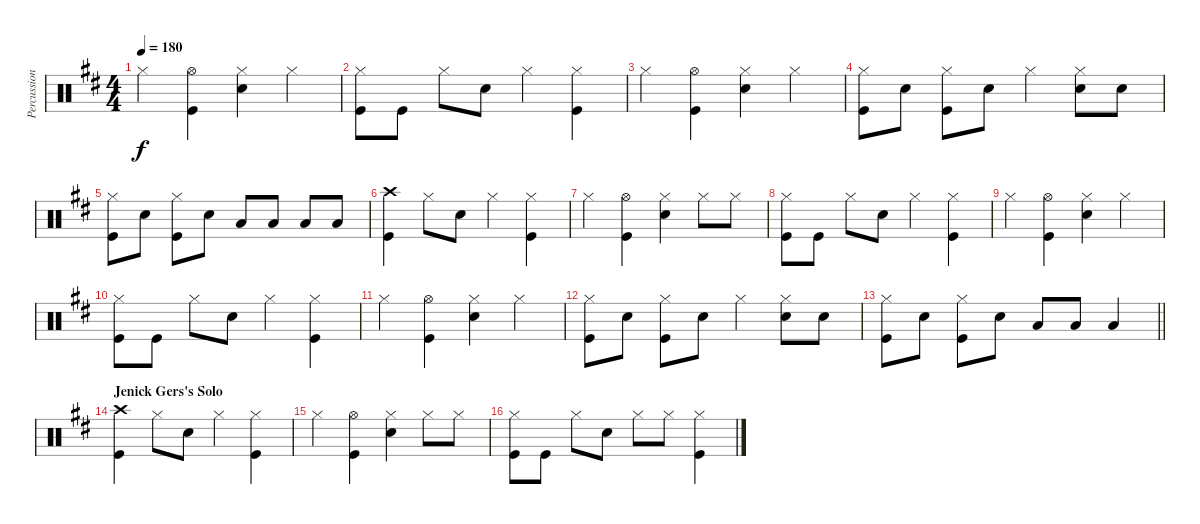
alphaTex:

\track ("Percussioni" "Percussion") {instrument percussion}
\staff {score}
\articulation defaults
\ts (4 4)
\tempo 180
\clef neutral
\ks d "Hi-Hat (closed)".4{dy f}
("Hi-Hat (open)" "Kick (hit)").4 ("Hi-Hat (closed)" "Snare (hit) 2").4 "Hi-Hat (closed)".4 |
("Hi-Hat (closed)" "Kick (hit)").8 "Kick (hit)".8 "Hi-Hat (closed)".8 "Snare (hit) 2".8 "Hi-Hat (closed)".4 ("Hi-Hat (closed)" "Kick (hit)").4 |
"Hi-Hat (closed)".4 ("Hi-Hat (open)" "Kick (hit)").4 ("Hi-Hat (closed)" "Snare (hit) 2").4 "Hi-Hat (closed)".4 |
("Hi-Hat (closed)" "Kick (hit)").8 "Snare (hit) 2".8 ("Hi-Hat (closed)" "Kick (hit)").8 "Snare (hit) 2".8 "Hi-Hat (closed)".4 ("Hi-Hat (closed)" "Snare (hit) 2").8 "Snare (hit) 2".8 |
("Hi-Hat (closed)" "Kick (hit)").8 "Snare (hit) 2".8 ("Hi-Hat (closed)" "Kick (hit)").8 "Snare (hit) 2".8 "Low Tom (hit)".8 "Low Tom (hit)".8 "Low Floor Tom (hit)".8 "Low Floor Tom (hit)".8 |
("Crash high (hit)" "Kick (hit)").4 "Hi-Hat (closed)".8 "Snare (hit) 2".8 "Hi-Hat (closed)".4 ("Hi-Hat (closed)" "Kick (hit)").4 |
"Hi-Hat (closed)".4 ("Hi-Hat (open)" "Kick (hit)").4 ("Hi-Hat (closed)" "Snare (hit) 2").4 "Hi-Hat (closed)".8 "Hi-Hat (closed)".8 |
("Hi-Hat (closed)" "Kick (hit)").8 "Kick (hit)".8 "Hi-Hat (closed)".8 "Snare (hit) 2".8 "Hi-Hat (closed)".4 ("Hi-Hat (closed)" "Kick (hit)").4 |
"Hi-Hat (closed)".4 ("Hi-Hat (open)" "Kick (hit)").4 ("Hi-Hat (closed)" "Snare (hit) 2").4 "Hi-Hat (closed)".4 |
("Hi-Hat (closed)" "Kick (hit)").8 "Kick (hit)".8 "Hi-Hat (closed)".8 "Snare (hit) 2".8 "Hi-Hat (closed)".4 ("Hi-Hat (closed)" "Kick (hit)").4 |
"Hi-Hat (closed)".4 ("Hi-Hat (open)" "Kick (hit)").4 ("Hi-Hat (closed)" "Snare (hit) 2").4 "Hi-Hat (closed)".4 |
("Hi-Hat (closed)" "Kick (hit)").8 "Snare (hit) 2".8 ("Hi-Hat (closed)" "Kick (hit)").8 "Snare (hit) 2".8 "Hi-Hat (closed)".4 ("Hi-Hat (closed)" "Snare (hit) 2").8 "Snare (hit) 2".8 |
\barLineRight lightlight
("Hi-Hat (closed)" "Kick (hit)").8 "Snare (hit) 2".8 ("Hi-Hat (closed)" "Kick (hit)").8 "Snare (hit) 2".8 "Low Tom (hit)".8 "Low Tom (hit)".8 "Low Floor Tom (hit)".4 |
\section ("" "Jenick Gers's Solo")
("Crash high (hit)" "Kick (hit)").4 "Hi-Hat (closed)".8 "Snare (hit) 2".8 "Hi-Hat (closed)".4 ("Hi-Hat (closed)" "Kick (hit)").4 |
"Hi-Hat (closed)".4 ("Hi-Hat (open)" "Kick (hit)").4 ("Hi-Hat (closed)" "Snare (hit) 2").4 "Hi-Hat (closed)".8 "Hi-Hat (closed)".8 |
("Hi-Hat (closed)" "Kick (hit)").8 "Kick (hit)".8 "Hi-Hat (closed)".8 "Snare (hit) 2".8 "Hi-Hat (closed)".8 "Hi-Hat (closed)".8 ("Hi-Hat (closed)" "Kick (hit)").4
